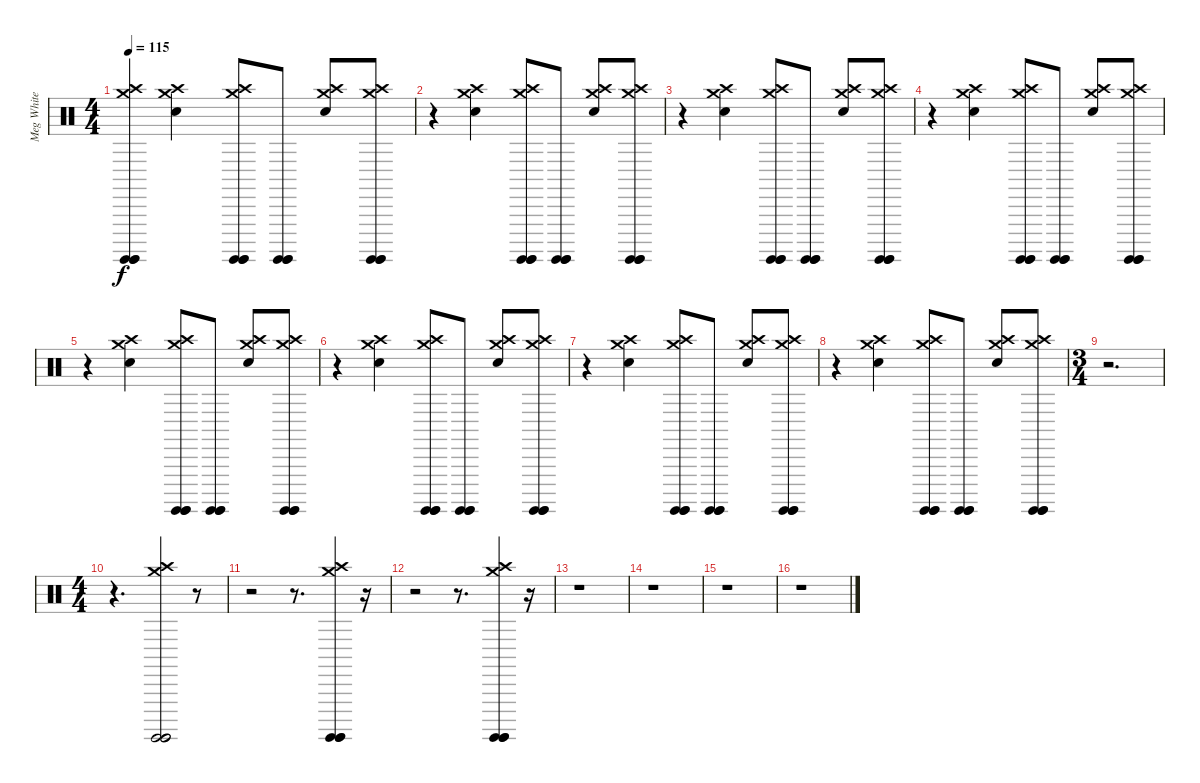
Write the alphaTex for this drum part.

\track ("Meg White" "Meg White") {instrument percussion}
\staff {score}
\articulation defaults
\ts (4 4)
\tempo 115
\clef neutral
\ks c
("Surdo (hit)" "Surdo (hit)" "Surdo (hit)" "Crash medium (hit)" "Crash high (hit)").4{dy f} ("Electric Snare (hit)" "Crash medium (hit)" "Crash high (hit)").4 ("Surdo (hit)" "Surdo (hit)" "Surdo (hit)" "Crash medium (hit)" "Crash high (hit)").8 ("Surdo (hit)" "Surdo (hit)" "Surdo (hit)").8 ("Electric Snare (hit)" "Crash medium (hit)" "Crash high (hit)").8 ("Surdo (hit)" "Surdo (hit)" "Surdo (hit)" "Crash medium (hit)" "Crash high (hit)").8 |
r.4 ("Electric Snare (hit)" "Crash medium (hit)" "Crash high (hit)").4 ("Surdo (hit)" "Surdo (hit)" "Surdo (hit)" "Crash medium (hit)" "Crash high (hit)").8 ("Surdo (hit)" "Surdo (hit)" "Surdo (hit)").8 ("Electric Snare (hit)" "Crash medium (hit)" "Crash high (hit)").8 ("Surdo (hit)" "Surdo (hit)" "Surdo (hit)" "Crash medium (hit)" "Crash high (hit)").8 |
r.4 ("Electric Snare (hit)" "Crash medium (hit)" "Crash high (hit)").4 ("Surdo (hit)" "Surdo (hit)" "Surdo (hit)" "Crash medium (hit)" "Crash high (hit)").8 ("Surdo (hit)" "Surdo (hit)" "Surdo (hit)").8 ("Electric Snare (hit)" "Crash medium (hit)" "Crash high (hit)").8 ("Surdo (hit)" "Surdo (hit)" "Surdo (hit)" "Crash medium (hit)" "Crash high (hit)").8 |
r.4 ("Electric Snare (hit)" "Crash medium (hit)" "Crash high (hit)").4 ("Surdo (hit)" "Surdo (hit)" "Surdo (hit)" "Crash medium (hit)" "Crash high (hit)").8 ("Surdo (hit)" "Surdo (hit)" "Surdo (hit)").8 ("Electric Snare (hit)" "Crash medium (hit)" "Crash high (hit)").8 ("Surdo (hit)" "Surdo (hit)" "Surdo (hit)" "Crash medium (hit)" "Crash high (hit)").8 |
r.4 ("Electric Snare (hit)" "Crash medium (hit)" "Crash high (hit)").4 ("Surdo (hit)" "Surdo (hit)" "Surdo (hit)" "Crash medium (hit)" "Crash high (hit)").8 ("Surdo (hit)" "Surdo (hit)" "Surdo (hit)").8 ("Electric Snare (hit)" "Crash medium (hit)" "Crash high (hit)").8 ("Surdo (hit)" "Surdo (hit)" "Surdo (hit)" "Crash medium (hit)" "Crash high (hit)").8 |
r.4 ("Electric Snare (hit)" "Crash medium (hit)" "Crash high (hit)").4 ("Surdo (hit)" "Surdo (hit)" "Surdo (hit)" "Crash medium (hit)" "Crash high (hit)").8 ("Surdo (hit)" "Surdo (hit)" "Surdo (hit)").8 ("Electric Snare (hit)" "Crash medium (hit)" "Crash high (hit)").8 ("Surdo (hit)" "Surdo (hit)" "Surdo (hit)" "Crash medium (hit)" "Crash high (hit)").8 |
r.4 ("Electric Snare (hit)" "Crash medium (hit)" "Crash high (hit)").4 ("Surdo (hit)" "Surdo (hit)" "Surdo (hit)" "Crash medium (hit)" "Crash high (hit)").8 ("Surdo (hit)" "Surdo (hit)" "Surdo (hit)").8 ("Electric Snare (hit)" "Crash medium (hit)" "Crash high (hit)").8 ("Surdo (hit)" "Surdo (hit)" "Surdo (hit)" "Crash medium (hit)" "Crash high (hit)").8 |
r.4 ("Electric Snare (hit)" "Crash medium (hit)" "Crash high (hit)").4 ("Surdo (hit)" "Surdo (hit)" "Surdo (hit)" "Crash medium (hit)" "Crash high (hit)").8 ("Surdo (hit)" "Surdo (hit)" "Surdo (hit)").8 ("Electric Snare (hit)" "Crash medium (hit)" "Crash high (hit)").8 ("Surdo (hit)" "Surdo (hit)" "Surdo (hit)" "Crash medium (hit)" "Crash high (hit)").8 |
\ts (3 4)
r.2{d} |
\ts (4 4)
r.4{d} ("Surdo (hit)" "Surdo (hit)" "Surdo (hit)" "Crash medium (hit)" "Crash high (hit)").2 r.8 |
r.2 r.8{d} ("Surdo (hit)" "Surdo (hit)" "Surdo (hit)" "Crash medium (hit)" "Crash high (hit)").4 r.16 |
r.2 r.8{d} ("Surdo (hit)" "Surdo (hit)" "Surdo (hit)" "Crash medium (hit)" "Crash high (hit)").4 r.16 |
r.1 |
r.1 |
r.1 |
r.1
